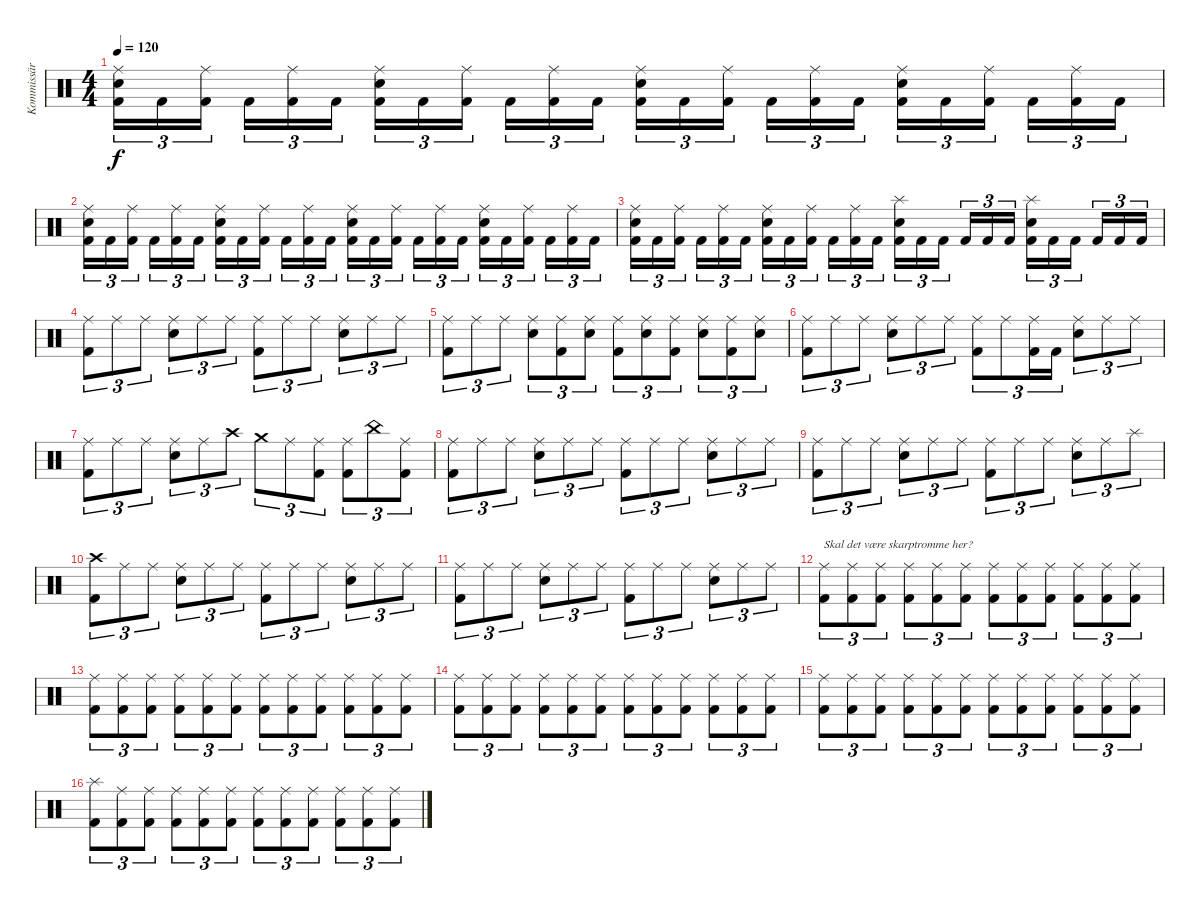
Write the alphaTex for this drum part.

\track ("Kommissär Ogrim" "Kommissär ") {instrument percussion}
\staff {score}
\articulation defaults
\ts (4 4)
\tempo 120
\clef neutral
\ks c
("Snare (hit) 2" "Ride (middle)" "Kick (hit) 2").16{tu (3 2) dy f} "Kick (hit) 2".16{tu (3 2)} ("Ride (middle)" "Kick (hit) 2").16{tu (3 2)} "Kick (hit) 2".16{tu (3 2)} ("Ride (middle)" "Kick (hit) 2").16{tu (3 2)} "Kick (hit) 2".16{tu (3 2)} ("Snare (hit) 2" "Ride (middle)" "Kick (hit) 2").16{tu (3 2)} "Kick (hit) 2".16{tu (3 2)} ("Ride (middle)" "Kick (hit) 2").16{tu (3 2)} "Kick (hit) 2".16{tu (3 2)} ("Ride (middle)" "Kick (hit) 2").16{tu (3 2)} "Kick (hit) 2".16{tu (3 2)} ("Snare (hit) 2" "Ride (middle)" "Kick (hit) 2").16{tu (3 2)} "Kick (hit) 2".16{tu (3 2)} ("Ride (middle)" "Kick (hit) 2").16{tu (3 2)} "Kick (hit) 2".16{tu (3 2)} ("Ride (middle)" "Kick (hit) 2").16{tu (3 2)} "Kick (hit) 2".16{tu (3 2)} ("Snare (hit) 2" "Ride (middle)" "Kick (hit) 2").16{tu (3 2)} "Kick (hit) 2".16{tu (3 2)} ("Ride (middle)" "Kick (hit) 2").16{tu (3 2)} "Kick (hit) 2".16{tu (3 2)} ("Ride (middle)" "Kick (hit) 2").16{tu (3 2)} "Kick (hit) 2".16{tu (3 2)} |
("Snare (hit) 2" "Ride (middle)" "Kick (hit) 2").16{tu (3 2)} "Kick (hit) 2".16{tu (3 2)} ("Ride (middle)" "Kick (hit) 2").16{tu (3 2)} "Kick (hit) 2".16{tu (3 2)} ("Ride (middle)" "Kick (hit) 2").16{tu (3 2)} "Kick (hit) 2".16{tu (3 2)} ("Snare (hit) 2" "Ride (middle)" "Kick (hit) 2").16{tu (3 2)} "Kick (hit) 2".16{tu (3 2)} ("Ride (middle)" "Kick (hit) 2").16{tu (3 2)} "Kick (hit) 2".16{tu (3 2)} ("Ride (middle)" "Kick (hit) 2").16{tu (3 2)} "Kick (hit) 2".16{tu (3 2)} ("Snare (hit) 2" "Ride (middle)" "Kick (hit) 2").16{tu (3 2)} "Kick (hit) 2".16{tu (3 2)} ("Ride (middle)" "Kick (hit) 2").16{tu (3 2)} "Kick (hit) 2".16{tu (3 2)} ("Ride (middle)" "Kick (hit) 2").16{tu (3 2)} "Kick (hit) 2".16{tu (3 2)} ("Snare (hit) 2" "Ride (middle)" "Kick (hit) 2").16{tu (3 2)} "Kick (hit) 2".16{tu (3 2)} ("Ride (middle)" "Kick (hit) 2").16{tu (3 2)} "Kick (hit) 2".16{tu (3 2)} ("Ride (middle)" "Kick (hit) 2").16{tu (3 2)} "Kick (hit) 2".16{tu (3 2)} |
("Snare (hit) 2" "Ride (middle)" "Kick (hit) 2").16{tu (3 2)} "Kick (hit) 2".16{tu (3 2)} ("Ride (middle)" "Kick (hit) 2").16{tu (3 2)} "Kick (hit) 2".16{tu (3 2)} ("Ride (middle)" "Kick (hit) 2").16{tu (3 2)} "Kick (hit) 2".16{tu (3 2)} ("Snare (hit) 2" "Ride (middle)" "Kick (hit) 2").16{tu (3 2)} "Kick (hit) 2".16{tu (3 2)} ("Ride (middle)" "Kick (hit) 2").16{tu (3 2)} "Kick (hit) 2".16{tu (3 2)} ("Ride (middle)" "Kick (hit) 2").16{tu (3 2)} "Kick (hit) 2".16{tu (3 2)} ("Snare (hit) 2" "Splash (hit)" "Kick (hit) 2").16{tu (3 2)} "Kick (hit) 2".16{tu (3 2)} "Kick (hit) 2".16{tu (3 2)} "Kick (hit) 2".16{tu (3 2)} "Kick (hit) 2".16{tu (3 2)} "Kick (hit) 2".16{tu (3 2)} ("Snare (hit) 2" "Splash (hit)" "Kick (hit) 2").16{tu (3 2)} "Kick (hit) 2".16{tu (3 2)} "Kick (hit) 2".16{tu (3 2)} "Kick (hit) 2".16{tu (3 2)} "Kick (hit) 2".16{tu (3 2)} "Kick (hit) 2".16{tu (3 2)} |
("Ride (middle)" "Kick (hit) 2").8{tu (3 2)} "Ride (middle)".8{tu (3 2)} "Ride (middle)".8{tu (3 2)} ("Snare (hit) 2" "Ride (middle)").8{tu (3 2)} "Ride (middle)".8{tu (3 2)} "Ride (middle)".8{tu (3 2)} ("Ride (middle)" "Kick (hit) 2").8{tu (3 2)} "Ride (middle)".8{tu (3 2)} "Ride (middle)".8{tu (3 2)} ("Snare (hit) 2" "Ride (middle)").8{tu (3 2)} "Ride (middle)".8{tu (3 2)} "Ride (middle)".8{tu (3 2)} |
("Ride (middle)" "Kick (hit) 2").8{tu (3 2)} "Ride (middle)".8{tu (3 2)} "Ride (middle)".8{tu (3 2)} ("Snare (hit) 2" "Ride (middle)").8{tu (3 2)} ("Ride (middle)" "Kick (hit) 2").8{tu (3 2)} ("Snare (hit) 2" "Ride (middle)").8{tu (3 2)} ("Ride (middle)" "Kick (hit) 2").8{tu (3 2)} ("Snare (hit) 2" "Ride (middle)").8{tu (3 2)} ("Ride (middle)" "Kick (hit) 2").8{tu (3 2)} ("Snare (hit) 2" "Ride (middle)").8{tu (3 2)} ("Ride (middle)" "Kick (hit) 2").8{tu (3 2)} ("Snare (hit) 2" "Ride (middle)").8{tu (3 2)} |
("Ride (middle)" "Kick (hit) 2").8{tu (3 2)} "Ride (middle)".8{tu (3 2)} "Ride (middle)".8{tu (3 2)} ("Snare (hit) 2" "Ride (middle)").8{tu (3 2)} "Ride (middle)".8{tu (3 2)} "Ride (middle)".8{tu (3 2)} ("Ride (middle)" "Kick (hit) 2").8{tu (3 2)} "Ride (middle)".8{tu (3 2)} ("Ride (middle)" "Kick (hit) 2").16{tu (3 2)} "Kick (hit) 2".16{tu (3 2)} ("Snare (hit) 2" "Ride (middle)").8{tu (3 2)} "Ride (middle)".8{tu (3 2)} "Ride (middle)".8{tu (3 2)} |
("Ride (middle)" "Kick (hit) 2").8{tu (3 2)} "Ride (middle)".8{tu (3 2)} "Ride (middle)".8{tu (3 2)} ("Snare (hit) 2" "Ride (middle)").8{tu (3 2)} "Ride (middle)".8{tu (3 2)} "Crash high (hit)".8{tu (3 2)} "Crash medium (hit)".8{tu (3 2)} "Ride (middle)".8{tu (3 2)} ("Ride (middle)" "Kick (hit) 2").8{tu (3 2)} ("Ride (middle)" "Kick (hit) 2").8{tu (3 2)} "China (hit)".8{tu (3 2)} ("Ride (middle)" "Kick (hit) 2").8{tu (3 2)} |
("Ride (middle)" "Kick (hit) 2").8{tu (3 2)} "Ride (middle)".8{tu (3 2)} "Ride (middle)".8{tu (3 2)} ("Snare (hit) 2" "Ride (middle)").8{tu (3 2)} "Ride (middle)".8{tu (3 2)} "Ride (middle)".8{tu (3 2)} ("Ride (middle)" "Kick (hit) 2").8{tu (3 2)} "Ride (middle)".8{tu (3 2)} "Ride (middle)".8{tu (3 2)} ("Snare (hit) 2" "Ride (middle)").8{tu (3 2)} "Ride (middle)".8{tu (3 2)} "Ride (middle)".8{tu (3 2)} |
("Ride (middle)" "Kick (hit) 2").8{tu (3 2)} "Ride (middle)".8{tu (3 2)} "Ride (middle)".8{tu (3 2)} ("Snare (hit) 2" "Ride (middle)").8{tu (3 2)} "Ride (middle)".8{tu (3 2)} "Ride (middle)".8{tu (3 2)} ("Ride (middle)" "Kick (hit) 2").8{tu (3 2)} "Ride (middle)".8{tu (3 2)} "Ride (middle)".8{tu (3 2)} ("Snare (hit) 2" "Ride (middle)").8{tu (3 2)} "Ride (middle)".8{tu (3 2)} "Splash (hit)".8{tu (3 2)} |
("Crash high (hit)" "Kick (hit) 2").8{tu (3 2)} "Ride (middle)".8{tu (3 2)} "Ride (middle)".8{tu (3 2)} ("Snare (hit) 2" "Ride (middle)").8{tu (3 2)} "Ride (middle)".8{tu (3 2)} "Ride (middle)".8{tu (3 2)} ("Ride (middle)" "Kick (hit) 2").8{tu (3 2)} "Ride (middle)".8{tu (3 2)} "Ride (middle)".8{tu (3 2)} ("Snare (hit) 2" "Ride (middle)").8{tu (3 2)} "Ride (middle)".8{tu (3 2)} "Ride (middle)".8{tu (3 2)} |
("Ride (middle)" "Kick (hit) 2").8{tu (3 2)} "Ride (middle)".8{tu (3 2)} "Ride (middle)".8{tu (3 2)} ("Snare (hit) 2" "Ride (middle)").8{tu (3 2)} "Ride (middle)".8{tu (3 2)} "Ride (middle)".8{tu (3 2)} ("Ride (middle)" "Kick (hit) 2").8{tu (3 2)} "Ride (middle)".8{tu (3 2)} "Ride (middle)".8{tu (3 2)} ("Snare (hit) 2" "Ride (middle)").8{tu (3 2)} "Ride (middle)".8{tu (3 2)} "Ride (middle)".8{tu (3 2)} |
("Ride (middle)" "Kick (hit) 2").8{tu (3 2) txt "Skal det være skarptromme her?"} ("Ride (middle)" "Kick (hit) 2").8{tu (3 2)} ("Ride (middle)" "Kick (hit) 2").8{tu (3 2)} ("Ride (middle)" "Kick (hit) 2").8{tu (3 2)} ("Ride (middle)" "Kick (hit) 2").8{tu (3 2)} ("Ride (middle)" "Kick (hit) 2").8{tu (3 2)} ("Ride (middle)" "Kick (hit) 2").8{tu (3 2)} ("Ride (middle)" "Kick (hit) 2").8{tu (3 2)} ("Ride (middle)" "Kick (hit) 2").8{tu (3 2)} ("Ride (middle)" "Kick (hit) 2").8{tu (3 2)} ("Ride (middle)" "Kick (hit) 2").8{tu (3 2)} ("Ride (middle)" "Kick (hit) 2").8{tu (3 2)} |
("Ride (middle)" "Kick (hit) 2").8{tu (3 2)} ("Ride (middle)" "Kick (hit) 2").8{tu (3 2)} ("Ride (middle)" "Kick (hit) 2").8{tu (3 2)} ("Ride (middle)" "Kick (hit) 2").8{tu (3 2)} ("Ride (middle)" "Kick (hit) 2").8{tu (3 2)} ("Ride (middle)" "Kick (hit) 2").8{tu (3 2)} ("Ride (middle)" "Kick (hit) 2").8{tu (3 2)} ("Ride (middle)" "Kick (hit) 2").8{tu (3 2)} ("Ride (middle)" "Kick (hit) 2").8{tu (3 2)} ("Ride (middle)" "Kick (hit) 2").8{tu (3 2)} ("Ride (middle)" "Kick (hit) 2").8{tu (3 2)} ("Ride (middle)" "Kick (hit) 2").8{tu (3 2)} |
("Ride (middle)" "Kick (hit) 2").8{tu (3 2)} ("Ride (middle)" "Kick (hit) 2").8{tu (3 2)} ("Ride (middle)" "Kick (hit) 2").8{tu (3 2)} ("Ride (middle)" "Kick (hit) 2").8{tu (3 2)} ("Ride (middle)" "Kick (hit) 2").8{tu (3 2)} ("Ride (middle)" "Kick (hit) 2").8{tu (3 2)} ("Ride (middle)" "Kick (hit) 2").8{tu (3 2)} ("Ride (middle)" "Kick (hit) 2").8{tu (3 2)} ("Ride (middle)" "Kick (hit) 2").8{tu (3 2)} ("Ride (middle)" "Kick (hit) 2").8{tu (3 2)} ("Ride (middle)" "Kick (hit) 2").8{tu (3 2)} ("Ride (middle)" "Kick (hit) 2").8{tu (3 2)} |
("Ride (middle)" "Kick (hit) 2").8{tu (3 2)} ("Ride (middle)" "Kick (hit) 2").8{tu (3 2)} ("Ride (middle)" "Kick (hit) 2").8{tu (3 2)} ("Ride (middle)" "Kick (hit) 2").8{tu (3 2)} ("Ride (middle)" "Kick (hit) 2").8{tu (3 2)} ("Ride (middle)" "Kick (hit) 2").8{tu (3 2)} ("Ride (middle)" "Kick (hit) 2").8{tu (3 2)} ("Ride (middle)" "Kick (hit) 2").8{tu (3 2)} ("Ride (middle)" "Kick (hit) 2").8{tu (3 2)} ("Ride (middle)" "Kick (hit) 2").8{tu (3 2)} ("Ride (middle)" "Kick (hit) 2").8{tu (3 2)} ("Ride (middle)" "Kick (hit) 2").8{tu (3 2)} |
("Splash (hit)" "Kick (hit) 2").8{tu (3 2)} ("Ride (middle)" "Kick (hit) 2").8{tu (3 2)} ("Ride (middle)" "Kick (hit) 2").8{tu (3 2)} ("Ride (middle)" "Kick (hit) 2").8{tu (3 2)} ("Ride (middle)" "Kick (hit) 2").8{tu (3 2)} ("Ride (middle)" "Kick (hit) 2").8{tu (3 2)} ("Ride (middle)" "Kick (hit) 2").8{tu (3 2)} ("Ride (middle)" "Kick (hit) 2").8{tu (3 2)} ("Ride (middle)" "Kick (hit) 2").8{tu (3 2)} ("Ride (middle)" "Kick (hit) 2").8{tu (3 2)} ("Ride (middle)" "Kick (hit) 2").8{tu (3 2)} ("Ride (middle)" "Kick (hit) 2").8{tu (3 2)}
